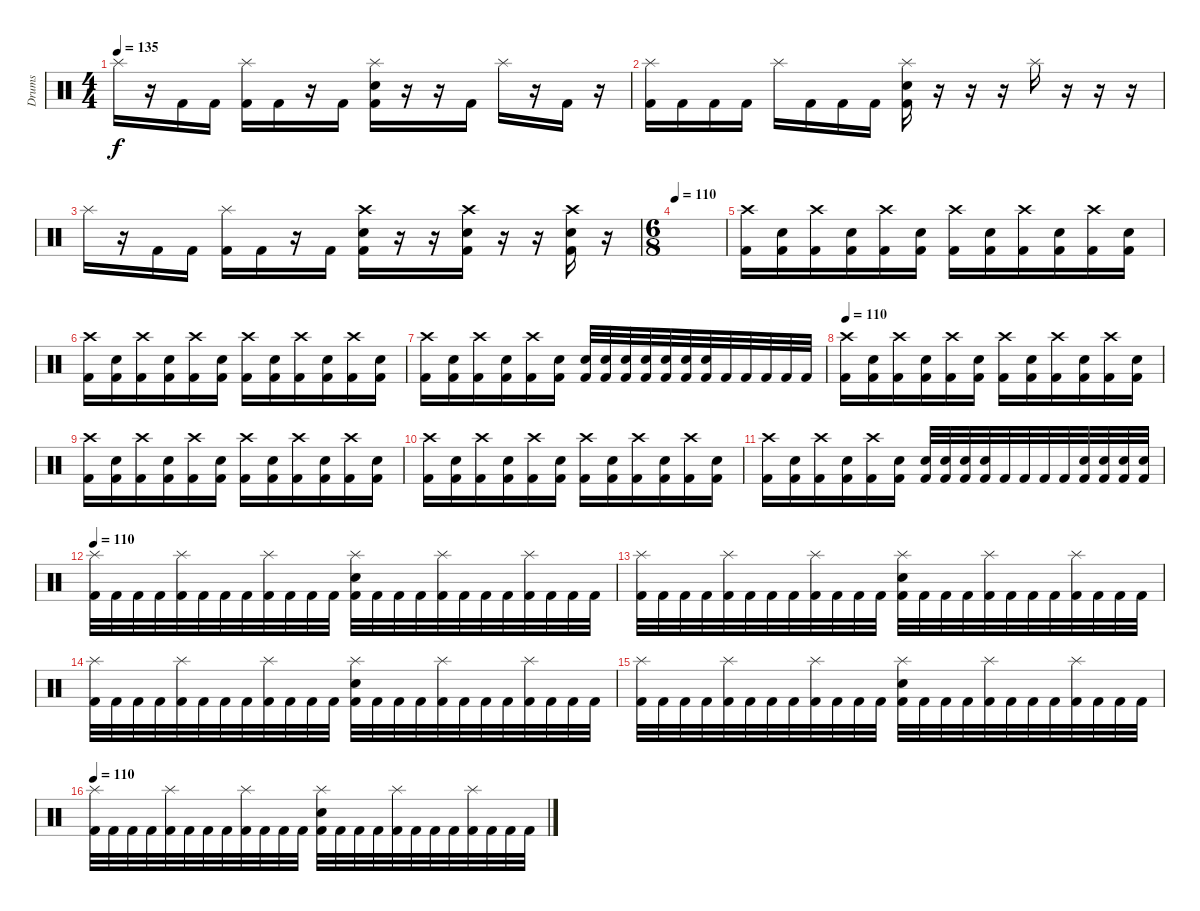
\track ("Drums" "Drums") {instrument percussion}
\staff {score}
\articulation defaults
\ts (4 4)
\tempo 135
\clef neutral
\ks c "Splash (hit)".16{dy f}
r.16 "Kick (hit) 2".16 "Kick (hit) 2".16 ("Splash (hit)" "Kick (hit) 2").16 "Kick (hit) 2".16 r.16 "Kick (hit) 2".16 ("Splash (hit)" "Electric Snare (hit)" "Kick (hit) 2").16 r.16 r.16 "Kick (hit) 2".16 "Splash (hit)".16 r.16 "Kick (hit) 2".16 r.16 |
("Splash (hit)" "Kick (hit) 2").16 "Kick (hit) 2".16 "Kick (hit) 2".16 "Kick (hit) 2".16 "Splash (hit)".16 "Kick (hit) 2".16 "Kick (hit) 2".16 "Kick (hit) 2".16 ("Splash (hit)" "Electric Snare (hit)" "Kick (hit) 2").16 r.16 r.16 r.16 "Splash (hit)".16 r.16 r.16 r.16 |
"Splash (hit)".16 r.16 "Kick (hit) 2".16 "Kick (hit) 2".16 ("Splash (hit)" "Kick (hit) 2").16 "Kick (hit) 2".16 r.16 "Kick (hit) 2".16 ("Crash high (hit)" "Electric Snare (hit)" "Kick (hit) 2").16 r.16 r.16 ("Crash high (hit)" "Electric Snare (hit)" "Kick (hit) 2").16 r.16 r.16 ("Crash high (hit)" "Electric Snare (hit)" "Kick (hit) 2").16 r.16 |
\ts (6 8)
\tempo 110
|
("Crash high (hit)" "Kick (hit) 2").16 ("Electric Snare (hit)" "Kick (hit) 2").16 ("Crash high (hit)" "Kick (hit) 2").16 ("Electric Snare (hit)" "Kick (hit) 2").16 ("Crash high (hit)" "Kick (hit) 2").16 ("Electric Snare (hit)" "Kick (hit) 2").16 ("Crash high (hit)" "Kick (hit) 2").16 ("Electric Snare (hit)" "Kick (hit) 2").16 ("Crash high (hit)" "Kick (hit) 2").16 ("Electric Snare (hit)" "Kick (hit) 2").16 ("Crash high (hit)" "Kick (hit) 2").16 ("Electric Snare (hit)" "Kick (hit) 2").16 |
("Crash high (hit)" "Kick (hit) 2").16 ("Electric Snare (hit)" "Kick (hit) 2").16 ("Crash high (hit)" "Kick (hit) 2").16 ("Electric Snare (hit)" "Kick (hit) 2").16 ("Crash high (hit)" "Kick (hit) 2").16 ("Electric Snare (hit)" "Kick (hit) 2").16 ("Crash high (hit)" "Kick (hit) 2").16 ("Electric Snare (hit)" "Kick (hit) 2").16 ("Crash high (hit)" "Kick (hit) 2").16 ("Electric Snare (hit)" "Kick (hit) 2").16 ("Crash high (hit)" "Kick (hit) 2").16 ("Electric Snare (hit)" "Kick (hit) 2").16 |
("Crash high (hit)" "Kick (hit) 2").16 ("Electric Snare (hit)" "Kick (hit) 2").16 ("Crash high (hit)" "Kick (hit) 2").16 ("Electric Snare (hit)" "Kick (hit) 2").16 ("Crash high (hit)" "Kick (hit) 2").16 ("Electric Snare (hit)" "Kick (hit) 2").16 ("Electric Snare (hit)" "Kick (hit) 2").32 ("Electric Snare (hit)" "Kick (hit) 2").32 ("Electric Snare (hit)" "Kick (hit) 2").32 ("Electric Snare (hit)" "Kick (hit) 2").32 ("Electric Snare (hit)" "Kick (hit) 2").32 ("Electric Snare (hit)" "Kick (hit) 2").32 ("Electric Snare (hit)" "Kick (hit) 2").32 "Kick (hit) 2".32 "Kick (hit) 2".32 "Kick (hit) 2".32 "Kick (hit) 2".32 "Kick (hit) 2".32 |
\tempo 110
("Crash high (hit)" "Kick (hit) 2").16 ("Electric Snare (hit)" "Kick (hit) 2").16 ("Crash high (hit)" "Kick (hit) 2").16 ("Electric Snare (hit)" "Kick (hit) 2").16 ("Crash high (hit)" "Kick (hit) 2").16 ("Electric Snare (hit)" "Kick (hit) 2").16 ("Crash high (hit)" "Kick (hit) 2").16 ("Electric Snare (hit)" "Kick (hit) 2").16 ("Crash high (hit)" "Kick (hit) 2").16 ("Electric Snare (hit)" "Kick (hit) 2").16 ("Crash high (hit)" "Kick (hit) 2").16 ("Electric Snare (hit)" "Kick (hit) 2").16 |
("Crash high (hit)" "Kick (hit) 2").16 ("Electric Snare (hit)" "Kick (hit) 2").16 ("Crash high (hit)" "Kick (hit) 2").16 ("Electric Snare (hit)" "Kick (hit) 2").16 ("Crash high (hit)" "Kick (hit) 2").16 ("Electric Snare (hit)" "Kick (hit) 2").16 ("Crash high (hit)" "Kick (hit) 2").16 ("Electric Snare (hit)" "Kick (hit) 2").16 ("Crash high (hit)" "Kick (hit) 2").16 ("Electric Snare (hit)" "Kick (hit) 2").16 ("Crash high (hit)" "Kick (hit) 2").16 ("Electric Snare (hit)" "Kick (hit) 2").16 |
("Crash high (hit)" "Kick (hit) 2").16 ("Electric Snare (hit)" "Kick (hit) 2").16 ("Crash high (hit)" "Kick (hit) 2").16 ("Electric Snare (hit)" "Kick (hit) 2").16 ("Crash high (hit)" "Kick (hit) 2").16 ("Electric Snare (hit)" "Kick (hit) 2").16 ("Crash high (hit)" "Kick (hit) 2").16 ("Electric Snare (hit)" "Kick (hit) 2").16 ("Crash high (hit)" "Kick (hit) 2").16 ("Electric Snare (hit)" "Kick (hit) 2").16 ("Crash high (hit)" "Kick (hit) 2").16 ("Electric Snare (hit)" "Kick (hit) 2").16 |
("Crash high (hit)" "Kick (hit) 2").16 ("Electric Snare (hit)" "Kick (hit) 2").16 ("Crash high (hit)" "Kick (hit) 2").16 ("Electric Snare (hit)" "Kick (hit) 2").16 ("Crash high (hit)" "Kick (hit) 2").16 ("Electric Snare (hit)" "Kick (hit) 2").16 ("Electric Snare (hit)" "Kick (hit) 2").32 ("Electric Snare (hit)" "Kick (hit) 2").32 ("Electric Snare (hit)" "Kick (hit) 2").32 ("Electric Snare (hit)" "Kick (hit) 2").32 "Kick (hit) 2".32 "Kick (hit) 2".32 "Kick (hit) 2".32 "Kick (hit) 2".32 ("Electric Snare (hit)" "Kick (hit) 2").32 ("Electric Snare (hit)" "Kick (hit) 2").32 ("Electric Snare (hit)" "Kick (hit) 2").32 ("Electric Snare (hit)" "Kick (hit) 2").32 |
\tempo 110
("Splash (hit)" "Kick (hit) 2").32 "Kick (hit) 2".32 "Kick (hit) 2".32 "Kick (hit) 2".32 ("Splash (hit)" "Kick (hit) 2").32 "Kick (hit) 2".32 "Kick (hit) 2".32 "Kick (hit) 2".32 ("Splash (hit)" "Kick (hit) 2").32 "Kick (hit) 2".32 "Kick (hit) 2".32 "Kick (hit) 2".32 ("Splash (hit)" "Electric Snare (hit)" "Kick (hit) 2").32 "Kick (hit) 2".32 "Kick (hit) 2".32 "Kick (hit) 2".32 ("Splash (hit)" "Kick (hit) 2").32 "Kick (hit) 2".32 "Kick (hit) 2".32 "Kick (hit) 2".32 ("Splash (hit)" "Kick (hit) 2").32 "Kick (hit) 2".32 "Kick (hit) 2".32 "Kick (hit) 2".32 |
("Splash (hit)" "Kick (hit) 2").32 "Kick (hit) 2".32 "Kick (hit) 2".32 "Kick (hit) 2".32 ("Splash (hit)" "Kick (hit) 2").32 "Kick (hit) 2".32 "Kick (hit) 2".32 "Kick (hit) 2".32 ("Splash (hit)" "Kick (hit) 2").32 "Kick (hit) 2".32 "Kick (hit) 2".32 "Kick (hit) 2".32 ("Splash (hit)" "Electric Snare (hit)" "Kick (hit) 2").32 "Kick (hit) 2".32 "Kick (hit) 2".32 "Kick (hit) 2".32 ("Splash (hit)" "Kick (hit) 2").32 "Kick (hit) 2".32 "Kick (hit) 2".32 "Kick (hit) 2".32 ("Splash (hit)" "Kick (hit) 2").32 "Kick (hit) 2".32 "Kick (hit) 2".32 "Kick (hit) 2".32 |
("Splash (hit)" "Kick (hit) 2").32 "Kick (hit) 2".32 "Kick (hit) 2".32 "Kick (hit) 2".32 ("Splash (hit)" "Kick (hit) 2").32 "Kick (hit) 2".32 "Kick (hit) 2".32 "Kick (hit) 2".32 ("Splash (hit)" "Kick (hit) 2").32 "Kick (hit) 2".32 "Kick (hit) 2".32 "Kick (hit) 2".32 ("Splash (hit)" "Electric Snare (hit)" "Kick (hit) 2").32 "Kick (hit) 2".32 "Kick (hit) 2".32 "Kick (hit) 2".32 ("Splash (hit)" "Kick (hit) 2").32 "Kick (hit) 2".32 "Kick (hit) 2".32 "Kick (hit) 2".32 ("Splash (hit)" "Kick (hit) 2").32 "Kick (hit) 2".32 "Kick (hit) 2".32 "Kick (hit) 2".32 |
("Splash (hit)" "Kick (hit) 2").32 "Kick (hit) 2".32 "Kick (hit) 2".32 "Kick (hit) 2".32 ("Splash (hit)" "Kick (hit) 2").32 "Kick (hit) 2".32 "Kick (hit) 2".32 "Kick (hit) 2".32 ("Splash (hit)" "Kick (hit) 2").32 "Kick (hit) 2".32 "Kick (hit) 2".32 "Kick (hit) 2".32 ("Splash (hit)" "Electric Snare (hit)" "Kick (hit) 2").32 "Kick (hit) 2".32 "Kick (hit) 2".32 "Kick (hit) 2".32 ("Splash (hit)" "Kick (hit) 2").32 "Kick (hit) 2".32 "Kick (hit) 2".32 "Kick (hit) 2".32 ("Splash (hit)" "Kick (hit) 2").32 "Kick (hit) 2".32 "Kick (hit) 2".32 "Kick (hit) 2".32 |
\tempo 110
("Splash (hit)" "Kick (hit) 2").32 "Kick (hit) 2".32 "Kick (hit) 2".32 "Kick (hit) 2".32 ("Splash (hit)" "Kick (hit) 2").32 "Kick (hit) 2".32 "Kick (hit) 2".32 "Kick (hit) 2".32 ("Splash (hit)" "Kick (hit) 2").32 "Kick (hit) 2".32 "Kick (hit) 2".32 "Kick (hit) 2".32 ("Splash (hit)" "Electric Snare (hit)" "Kick (hit) 2").32 "Kick (hit) 2".32 "Kick (hit) 2".32 "Kick (hit) 2".32 ("Splash (hit)" "Kick (hit) 2").32 "Kick (hit) 2".32 "Kick (hit) 2".32 "Kick (hit) 2".32 ("Splash (hit)" "Kick (hit) 2").32 "Kick (hit) 2".32 "Kick (hit) 2".32 "Kick (hit) 2".32
